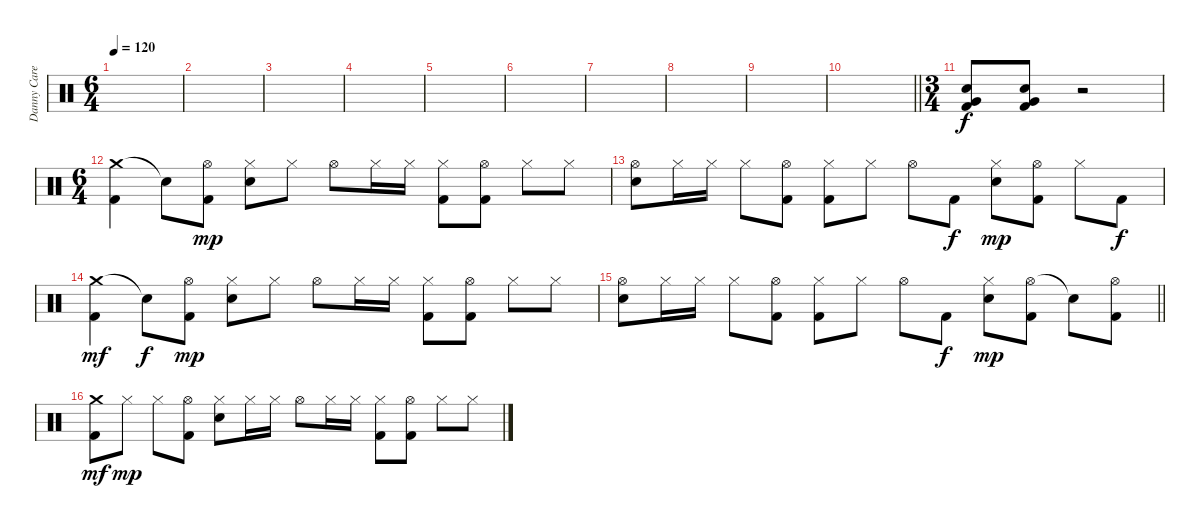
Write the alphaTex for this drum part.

\track ("Danny Carey" "Danny Care") {instrument percussion}
\staff {score}
\articulation defaults
\ts (6 4)
\tempo 120
\clef neutral
\ks c
|
|
|
|
|
|
|
|
|
\barLineRight lightlight
|
\ts (3 4)
\section ("" "")
("Snare (hit) 2" "Very Low Tom (hit)" "Kick (hit) 2").8 ("Snare (hit) 2" "Very Low Tom (hit)" "Kick (hit) 2").8 r.2 |
\ts (6 4)
("Crash medium (hit)" "Kick (hit) 2").4 "Snare (hit)"{t}.8{dy f} ("Hi-Hat (open)" "Kick (hit) 2").8{dy mp} ("Hi-Hat (closed)" "Snare (hit) 2").8 "Hi-Hat (closed)".8 "Hi-Hat (open)".8 "Hi-Hat (closed)".16 "Hi-Hat (closed)".16 ("Hi-Hat (closed)" "Kick (hit) 2").8 ("Hi-Hat (open)" "Kick (hit) 2").8 "Hi-Hat (closed)".8 "Hi-Hat (closed)".8 |
("Hi-Hat (open)" "Snare (hit) 2").8 "Hi-Hat (closed)".16 "Hi-Hat (closed)".16 "Hi-Hat (closed)".8 ("Hi-Hat (open)" "Kick (hit) 2").8 ("Hi-Hat (closed)" "Kick (hit) 2").8 "Hi-Hat (closed)".8 "Hi-Hat (open)".8 "Kick (hit) 2".8{dy f} ("Hi-Hat (closed)" "Snare (hit) 2").8{dy mp} ("Hi-Hat (open)" "Kick (hit) 2").8 "Hi-Hat (closed)".8 "Kick (hit) 2".8{dy f} |
("Crash medium (hit)" "Kick (hit) 2").4{dy mf} "Snare (hit)"{t}.8{dy f} ("Hi-Hat (open)" "Kick (hit) 2").8{dy mp} ("Hi-Hat (closed)" "Snare (hit) 2").8 "Hi-Hat (closed)".8 "Hi-Hat (open)".8 "Hi-Hat (closed)".16 "Hi-Hat (closed)".16 ("Hi-Hat (closed)" "Kick (hit) 2").8 ("Hi-Hat (open)" "Kick (hit) 2").8 "Hi-Hat (closed)".8 "Hi-Hat (closed)".8 |
\barLineRight lightlight
("Hi-Hat (open)" "Snare (hit) 2").8 "Hi-Hat (closed)".16 "Hi-Hat (closed)".16 "Hi-Hat (closed)".8 ("Hi-Hat (open)" "Kick (hit) 2").8 ("Hi-Hat (closed)" "Kick (hit) 2").8 "Hi-Hat (closed)".8 "Hi-Hat (open)".8 "Kick (hit) 2".8{dy f} ("Hi-Hat (closed)" "Snare (hit) 2").8{dy mp} ("Hi-Hat (open)" "Kick (hit) 2").8 "Snare (hit)"{t}.8 ("Hi-Hat (open)" "Kick (hit) 2").8 |
\section ("" "")
("Crash medium (hit)" "Kick (hit) 2").8{dy mf} "Hi-Hat (closed)".8{dy mp} "Hi-Hat (closed)".8 ("Hi-Hat (open)" "Kick (hit) 2").8 ("Hi-Hat (closed)" "Snare (hit) 2").8 "Hi-Hat (closed)".16 "Hi-Hat (closed)".16 "Hi-Hat (open)".8 "Hi-Hat (closed)".16 "Hi-Hat (closed)".16 ("Hi-Hat (closed)" "Kick (hit) 2").8 ("Hi-Hat (open)" "Kick (hit) 2").8 "Hi-Hat (closed)".8 "Hi-Hat (closed)".8
